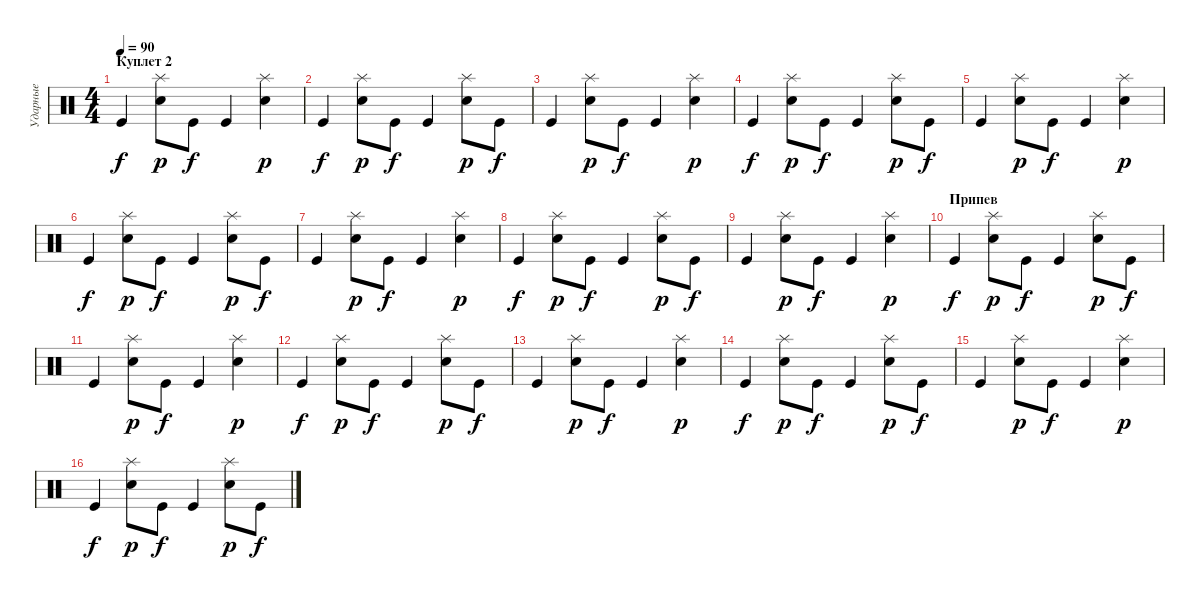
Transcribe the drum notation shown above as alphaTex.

\track ("Ударные" "Ударные") {instrument percussion}
\staff {score}
\articulation defaults
\ts (4 4)
\section ("" "Куплет 2")
\tempo 90
\clef neutral
\ks c "Kick (hit)".4{dy f}
("Splash (hit)" "Snare (hit) 2").8{dy p} "Kick (hit)".8{dy f} "Kick (hit)".4 ("Splash (hit)" "Snare (hit) 2").4{dy p} |
"Kick (hit)".4{dy f} ("Splash (hit)" "Snare (hit) 2").8{dy p} "Kick (hit)".8{dy f} "Kick (hit)".4 ("Splash (hit)" "Snare (hit) 2").8{dy p} "Kick (hit)".8{dy f} |
"Kick (hit)".4 ("Splash (hit)" "Snare (hit) 2").8{dy p} "Kick (hit)".8{dy f} "Kick (hit)".4 ("Splash (hit)" "Snare (hit) 2").4{dy p} |
"Kick (hit)".4{dy f} ("Splash (hit)" "Snare (hit) 2").8{dy p} "Kick (hit)".8{dy f} "Kick (hit)".4 ("Splash (hit)" "Snare (hit) 2").8{dy p} "Kick (hit)".8{dy f} |
"Kick (hit)".4 ("Splash (hit)" "Snare (hit) 2").8{dy p} "Kick (hit)".8{dy f} "Kick (hit)".4 ("Splash (hit)" "Snare (hit) 2").4{dy p} |
"Kick (hit)".4{dy f} ("Splash (hit)" "Snare (hit) 2").8{dy p} "Kick (hit)".8{dy f} "Kick (hit)".4 ("Splash (hit)" "Snare (hit) 2").8{dy p} "Kick (hit)".8{dy f} |
"Kick (hit)".4 ("Splash (hit)" "Snare (hit) 2").8{dy p} "Kick (hit)".8{dy f} "Kick (hit)".4 ("Splash (hit)" "Snare (hit) 2").4{dy p} |
"Kick (hit)".4{dy f} ("Splash (hit)" "Snare (hit) 2").8{dy p} "Kick (hit)".8{dy f} "Kick (hit)".4 ("Splash (hit)" "Snare (hit) 2").8{dy p} "Kick (hit)".8{dy f} |
"Kick (hit)".4 ("Splash (hit)" "Snare (hit) 2").8{dy p} "Kick (hit)".8{dy f} "Kick (hit)".4 ("Splash (hit)" "Snare (hit) 2").4{dy p} |
\section ("" "Припев")
"Kick (hit)".4{dy f} ("Splash (hit)" "Snare (hit) 2").8{dy p} "Kick (hit)".8{dy f} "Kick (hit)".4 ("Splash (hit)" "Snare (hit) 2").8{dy p} "Kick (hit)".8{dy f} |
"Kick (hit)".4 ("Splash (hit)" "Snare (hit) 2").8{dy p} "Kick (hit)".8{dy f} "Kick (hit)".4 ("Splash (hit)" "Snare (hit) 2").4{dy p} |
"Kick (hit)".4{dy f} ("Splash (hit)" "Snare (hit) 2").8{dy p} "Kick (hit)".8{dy f} "Kick (hit)".4 ("Splash (hit)" "Snare (hit) 2").8{dy p} "Kick (hit)".8{dy f} |
"Kick (hit)".4 ("Splash (hit)" "Snare (hit) 2").8{dy p} "Kick (hit)".8{dy f} "Kick (hit)".4 ("Splash (hit)" "Snare (hit) 2").4{dy p} |
"Kick (hit)".4{dy f} ("Splash (hit)" "Snare (hit) 2").8{dy p} "Kick (hit)".8{dy f} "Kick (hit)".4 ("Splash (hit)" "Snare (hit) 2").8{dy p} "Kick (hit)".8{dy f} |
"Kick (hit)".4 ("Splash (hit)" "Snare (hit) 2").8{dy p} "Kick (hit)".8{dy f} "Kick (hit)".4 ("Splash (hit)" "Snare (hit) 2").4{dy p} |
"Kick (hit)".4{dy f} ("Splash (hit)" "Snare (hit) 2").8{dy p} "Kick (hit)".8{dy f} "Kick (hit)".4 ("Splash (hit)" "Snare (hit) 2").8{dy p} "Kick (hit)".8{dy f}
